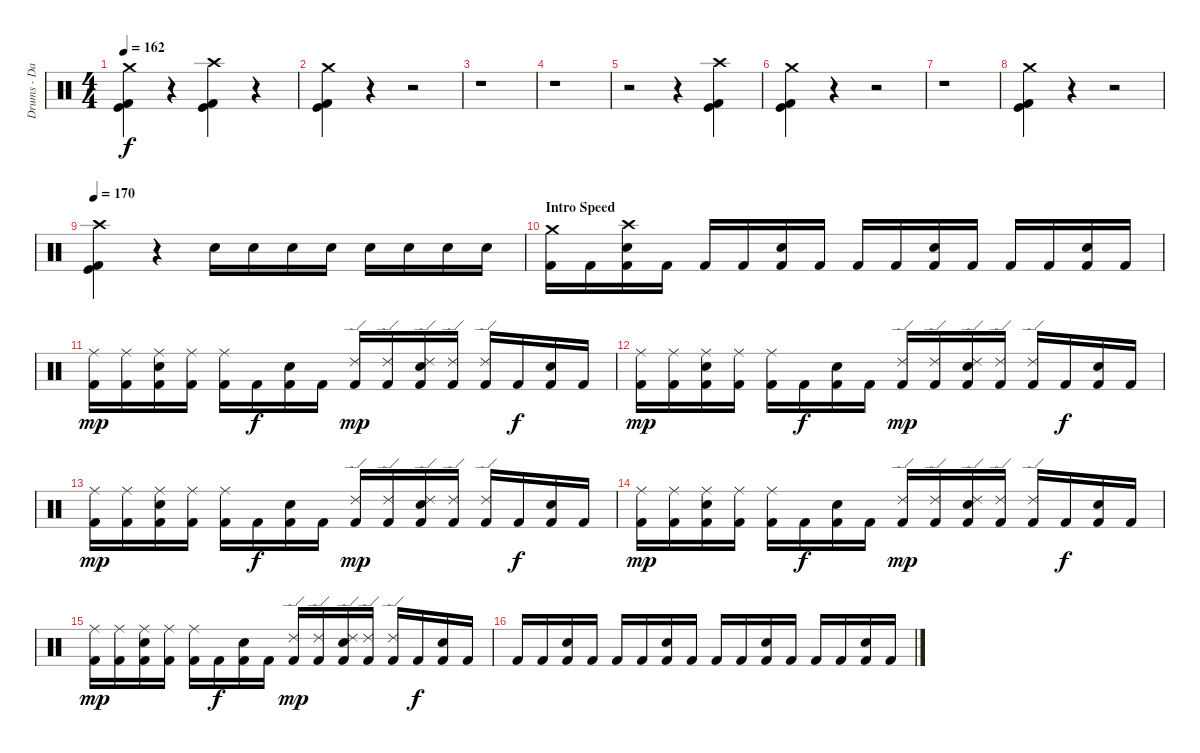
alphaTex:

\track ("Drums - Daniel Zimmermann" "Drums - Da") {instrument percussion}
\staff {score}
\articulation defaults
\ts (4 4)
\tempo 162
\clef neutral
\ks c
("Kick (hit) 2" "Kick (hit)" "Crash medium (hit)").4{dy f} r.4 ("Kick (hit) 2" "Kick (hit)" "Crash high (hit)").4 r.4 |
("Kick (hit) 2" "Kick (hit)" "Crash medium (hit)").4 r.4 r.2 |
r.1 |
r.1 |
r.2 r.4 ("Kick (hit) 2" "Kick (hit)" "Crash high (hit)").4 |
("Kick (hit) 2" "Kick (hit)" "Crash medium (hit)").4 r.4 r.2 |
r.1 |
("Kick (hit) 2" "Kick (hit)" "Crash medium (hit)").4 r.4 r.2 |
\tempo 170
("Kick (hit) 2" "Kick (hit)" "Crash high (hit)").4 r.4 "Electric Snare (hit)".16 "Electric Snare (hit)".16 "Electric Snare (hit)".16 "Electric Snare (hit)".16 "Electric Snare (hit)".16 "Electric Snare (hit)".16 "Electric Snare (hit)".16 "Electric Snare (hit)".16 |
\section ("" "Intro Speed")
("Kick (hit) 2" "Crash medium (hit)").16 "Kick (hit) 2".16 ("Kick (hit) 2" "Electric Snare (hit)" "Crash high (hit)").16 "Kick (hit) 2".16 "Kick (hit) 2".16 "Kick (hit) 2".16 ("Kick (hit) 2" "Electric Snare (hit)").16 "Kick (hit) 2".16 "Kick (hit) 2".16 "Kick (hit) 2".16 ("Kick (hit) 2" "Electric Snare (hit)").16 "Kick (hit) 2".16 "Kick (hit) 2".16 "Kick (hit) 2".16 ("Kick (hit) 2" "Electric Snare (hit)").16 "Kick (hit) 2".16 |
("Kick (hit) 2" "Ride (middle)").16{dy mp} ("Kick (hit) 2" "Ride (middle)").16 ("Kick (hit) 2" "Electric Snare (hit)" "Ride (middle)").16 ("Kick (hit) 2" "Ride (middle)").16 ("Kick (hit) 2" "Ride (middle)").16 "Kick (hit) 2".16{dy f} ("Kick (hit) 2" "Electric Snare (hit)").16 "Kick (hit) 2".16 ("Kick (hit) 2" "Ride (edge) 2").16{dy mp} ("Kick (hit) 2" "Ride (edge) 2").16 ("Kick (hit) 2" "Electric Snare (hit)" "Ride (edge) 2").16 ("Kick (hit) 2" "Ride (edge) 2").16 ("Kick (hit) 2" "Ride (edge) 2").16 "Kick (hit) 2".16{dy f} ("Kick (hit) 2" "Electric Snare (hit)").16 "Kick (hit) 2".16 |
("Kick (hit) 2" "Ride (middle)").16{dy mp} ("Kick (hit) 2" "Ride (middle)").16 ("Kick (hit) 2" "Electric Snare (hit)" "Ride (middle)").16 ("Kick (hit) 2" "Ride (middle)").16 ("Kick (hit) 2" "Ride (middle)").16 "Kick (hit) 2".16{dy f} ("Kick (hit) 2" "Electric Snare (hit)").16 "Kick (hit) 2".16 ("Kick (hit) 2" "Ride (edge) 2").16{dy mp} ("Kick (hit) 2" "Ride (edge) 2").16 ("Kick (hit) 2" "Electric Snare (hit)" "Ride (edge) 2").16 ("Kick (hit) 2" "Ride (edge) 2").16 ("Kick (hit) 2" "Ride (edge) 2").16 "Kick (hit) 2".16{dy f} ("Kick (hit) 2" "Electric Snare (hit)").16 "Kick (hit) 2".16 |
("Kick (hit) 2" "Ride (middle)").16{dy mp} ("Kick (hit) 2" "Ride (middle)").16 ("Kick (hit) 2" "Electric Snare (hit)" "Ride (middle)").16 ("Kick (hit) 2" "Ride (middle)").16 ("Kick (hit) 2" "Ride (middle)").16 "Kick (hit) 2".16{dy f} ("Kick (hit) 2" "Electric Snare (hit)").16 "Kick (hit) 2".16 ("Kick (hit) 2" "Ride (edge) 2").16{dy mp} ("Kick (hit) 2" "Ride (edge) 2").16 ("Kick (hit) 2" "Electric Snare (hit)" "Ride (edge) 2").16 ("Kick (hit) 2" "Ride (edge) 2").16 ("Kick (hit) 2" "Ride (edge) 2").16 "Kick (hit) 2".16{dy f} ("Kick (hit) 2" "Electric Snare (hit)").16 "Kick (hit) 2".16 |
("Kick (hit) 2" "Ride (middle)").16{dy mp} ("Kick (hit) 2" "Ride (middle)").16 ("Kick (hit) 2" "Electric Snare (hit)" "Ride (middle)").16 ("Kick (hit) 2" "Ride (middle)").16 ("Kick (hit) 2" "Ride (middle)").16 "Kick (hit) 2".16{dy f} ("Kick (hit) 2" "Electric Snare (hit)").16 "Kick (hit) 2".16 ("Kick (hit) 2" "Ride (edge) 2").16{dy mp} ("Kick (hit) 2" "Ride (edge) 2").16 ("Kick (hit) 2" "Electric Snare (hit)" "Ride (edge) 2").16 ("Kick (hit) 2" "Ride (edge) 2").16 ("Kick (hit) 2" "Ride (edge) 2").16 "Kick (hit) 2".16{dy f} ("Kick (hit) 2" "Electric Snare (hit)").16 "Kick (hit) 2".16 |
("Kick (hit) 2" "Ride (middle)").16{dy mp} ("Kick (hit) 2" "Ride (middle)").16 ("Kick (hit) 2" "Electric Snare (hit)" "Ride (middle)").16 ("Kick (hit) 2" "Ride (middle)").16 ("Kick (hit) 2" "Ride (middle)").16 "Kick (hit) 2".16{dy f} ("Kick (hit) 2" "Electric Snare (hit)").16 "Kick (hit) 2".16 ("Kick (hit) 2" "Ride (edge) 2").16{dy mp} ("Kick (hit) 2" "Ride (edge) 2").16 ("Kick (hit) 2" "Electric Snare (hit)" "Ride (edge) 2").16 ("Kick (hit) 2" "Ride (edge) 2").16 ("Kick (hit) 2" "Ride (edge) 2").16 "Kick (hit) 2".16{dy f} ("Kick (hit) 2" "Electric Snare (hit)").16 "Kick (hit) 2".16 |
"Kick (hit) 2".16 "Kick (hit) 2".16 ("Kick (hit) 2" "Electric Snare (hit)").16 "Kick (hit) 2".16 "Kick (hit) 2".16 "Kick (hit) 2".16 ("Kick (hit) 2" "Electric Snare (hit)").16 "Kick (hit) 2".16 "Kick (hit) 2".16 "Kick (hit) 2".16 ("Kick (hit) 2" "Electric Snare (hit)").16 "Kick (hit) 2".16 "Kick (hit) 2".16 "Kick (hit) 2".16 ("Kick (hit) 2" "Electric Snare (hit)").16 "Kick (hit) 2".16
